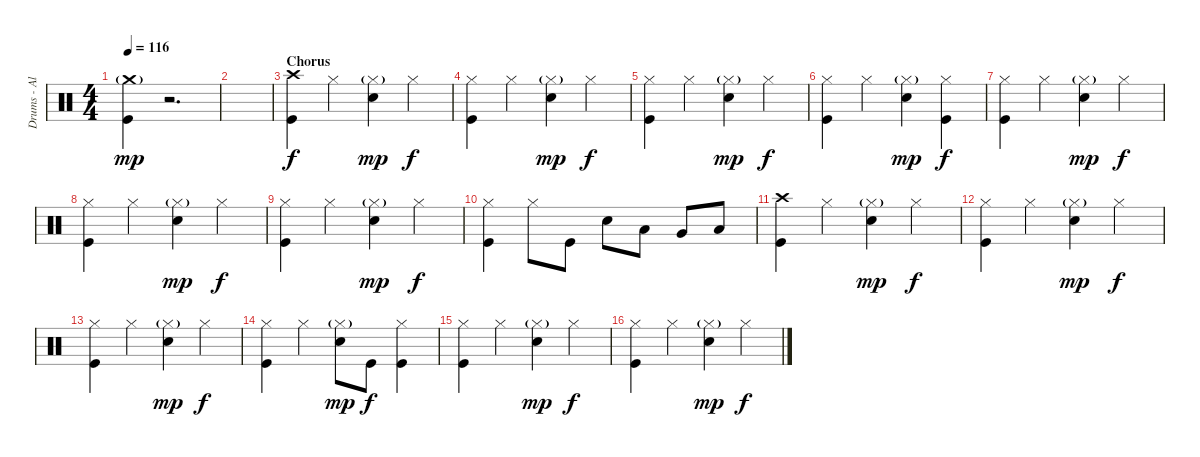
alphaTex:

\track ("Drums - Alex Holzwarth" "Drums - Al") {instrument percussion}
\staff {score}
\articulation defaults
\ts (4 4)
\tempo 116
\clef neutral
\ks c
("Crash medium (hit)"{g} "Kick (hit)").4{dy mp} r.2{d} |
|
\section ("" "Chorus")
("Crash high (hit)" "Kick (hit)").4{dy f} "Hi-Hat (closed)".4 ("Snare (hit) 2" "Hi-Hat (closed)"{g}).4{dy mp} "Hi-Hat (closed)".4{dy f} |
("Hi-Hat (closed)" "Kick (hit)").4 "Hi-Hat (closed)".4 ("Electric Snare (hit)" "Hi-Hat (closed)"{g}).4{dy mp} "Hi-Hat (closed)".4{dy f} |
("Hi-Hat (closed)" "Kick (hit)").4 "Hi-Hat (closed)".4 ("Snare (hit) 2" "Hi-Hat (closed)"{g}).4{dy mp} "Hi-Hat (closed)".4{dy f} |
("Hi-Hat (closed)" "Kick (hit)").4 "Hi-Hat (closed)".4 ("Electric Snare (hit)" "Hi-Hat (closed)"{g}).4{dy mp} ("Hi-Hat (closed)" "Kick (hit)").4{dy f} |
("Hi-Hat (closed)" "Kick (hit)").4 "Hi-Hat (closed)".4 ("Snare (hit) 2" "Hi-Hat (closed)"{g}).4{dy mp} "Hi-Hat (closed)".4{dy f} |
("Hi-Hat (closed)" "Kick (hit)").4 "Hi-Hat (closed)".4 ("Electric Snare (hit)" "Hi-Hat (closed)"{g}).4{dy mp} "Hi-Hat (closed)".4{dy f} |
("Hi-Hat (closed)" "Kick (hit)").4 "Hi-Hat (closed)".4 ("Electric Snare (hit)" "Hi-Hat (closed)"{g}).4{dy mp} "Hi-Hat (closed)".4{dy f} |
("Hi-Hat (closed)" "Kick (hit)").4 "Hi-Hat (closed)".8 "Kick (hit)".8 "Electric Snare (hit)".8 "Low Tom (hit)".8 "Very Low Tom (hit)".8 "Low Floor Tom (hit)".8 |
("Crash high (hit)" "Kick (hit)").4 "Hi-Hat (closed)".4 ("Snare (hit) 2" "Hi-Hat (closed)"{g}).4{dy mp} "Hi-Hat (closed)".4{dy f} |
("Hi-Hat (closed)" "Kick (hit)").4 "Hi-Hat (closed)".4 ("Electric Snare (hit)" "Hi-Hat (closed)"{g}).4{dy mp} "Hi-Hat (closed)".4{dy f} |
("Hi-Hat (closed)" "Kick (hit)").4 "Hi-Hat (closed)".4 ("Snare (hit) 2" "Hi-Hat (closed)"{g}).4{dy mp} "Hi-Hat (closed)".4{dy f} |
("Hi-Hat (closed)" "Kick (hit)").4 "Hi-Hat (closed)".4 ("Electric Snare (hit)" "Hi-Hat (closed)"{g}).8{dy mp} "Kick (hit)".8{dy f} ("Hi-Hat (closed)" "Kick (hit)").4 |
("Hi-Hat (closed)" "Kick (hit)").4 "Hi-Hat (closed)".4 ("Electric Snare (hit)" "Hi-Hat (closed)"{g}).4{dy mp} "Hi-Hat (closed)".4{dy f} |
("Hi-Hat (closed)" "Kick (hit)").4 "Hi-Hat (closed)".4 ("Snare (hit) 2" "Hi-Hat (closed)"{g}).4{dy mp} "Hi-Hat (closed)".4{dy f}
